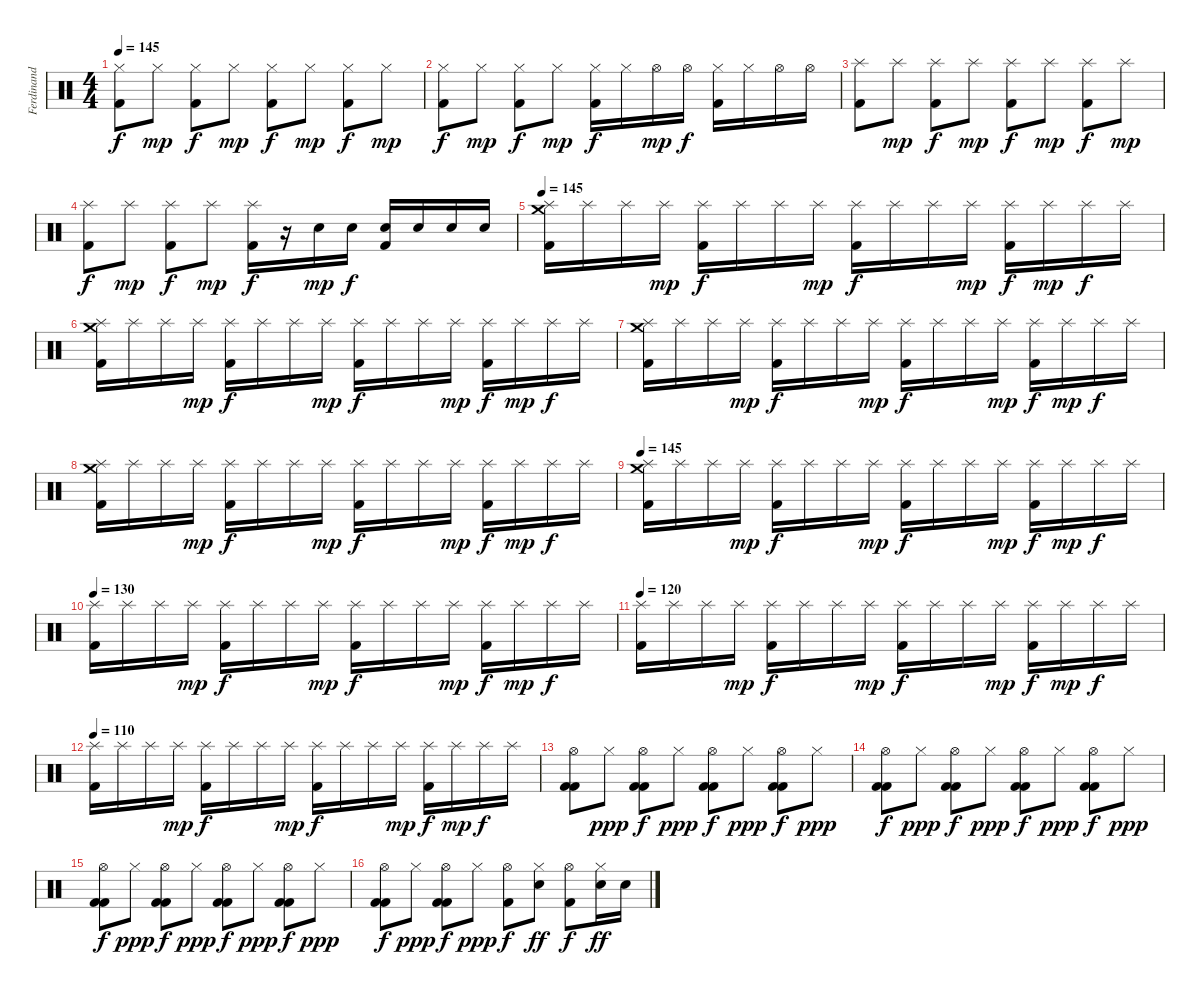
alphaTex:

\track ("Ferdinand" "Ferdinand") {instrument percussion}
\staff {score}
\articulation defaults
\ts (4 4)
\tempo 145
\clef neutral
\ks c
("Kick (hit) 2" "Hi-Hat (closed)").8{dy f} "Hi-Hat (closed)".8{dy mp} ("Kick (hit) 2" "Hi-Hat (closed)").8{dy f} "Hi-Hat (closed)".8{dy mp} ("Kick (hit) 2" "Hi-Hat (closed)").8{dy f} "Hi-Hat (closed)".8{dy mp} ("Kick (hit) 2" "Hi-Hat (closed)").8{dy f} "Hi-Hat (closed)".8{dy mp} |
("Kick (hit) 2" "Hi-Hat (closed)").8{dy f} "Hi-Hat (closed)".8{dy mp} ("Kick (hit) 2" "Hi-Hat (closed)").8{dy f} "Hi-Hat (closed)".8{dy mp} ("Kick (hit) 2" "Hi-Hat (closed)").16{dy f} "Hi-Hat (closed)".16 "Hi-Hat (open)".16{dy mp} "Hi-Hat (open)".16{dy f} ("Kick (hit) 2" "Hi-Hat (closed)").16 "Hi-Hat (closed)".16 "Hi-Hat (open)".16 "Hi-Hat (open)".16 |
("Kick (hit) 2" "Splash (hit)").8 "Splash (hit)".8{dy mp} ("Kick (hit) 2" "Splash (hit)").8{dy f} "Splash (hit)".8{dy mp} ("Kick (hit) 2" "Splash (hit)").8{dy f} "Splash (hit)".8{dy mp} ("Kick (hit) 2" "Splash (hit)").8{dy f} "Splash (hit)".8{dy mp} |
("Kick (hit) 2" "Splash (hit)").8{dy f} "Splash (hit)".8{dy mp} ("Kick (hit) 2" "Splash (hit)").8{dy f} "Splash (hit)".8{dy mp} ("Kick (hit) 2" "Splash (hit)").16{dy f} r.16 "Electric Snare (hit)".16{dy mp} "Electric Snare (hit)".16{dy f} ("Kick (hit) 2" "Electric Snare (hit)").16 "Electric Snare (hit)".16 "Electric Snare (hit)".16 "Electric Snare (hit)".16 |
\tempo 145
("Crash medium (hit)" "Kick (hit) 2" "Splash (hit)").16 "Splash (hit)".16 "Splash (hit)".16 "Splash (hit)".16{dy mp} ("Kick (hit) 2" "Splash (hit)").16{dy f} "Splash (hit)".16 "Splash (hit)".16 "Splash (hit)".16{dy mp} ("Kick (hit) 2" "Splash (hit)").16{dy f} "Splash (hit)".16 "Splash (hit)".16 "Splash (hit)".16{dy mp} ("Kick (hit) 2" "Splash (hit)").16{dy f} "Splash (hit)".16{dy mp} "Splash (hit)".16{dy f} "Splash (hit)".16 |
("Crash medium (hit)" "Kick (hit) 2" "Splash (hit)").16 "Splash (hit)".16 "Splash (hit)".16 "Splash (hit)".16{dy mp} ("Kick (hit) 2" "Splash (hit)").16{dy f} "Splash (hit)".16 "Splash (hit)".16 "Splash (hit)".16{dy mp} ("Kick (hit) 2" "Splash (hit)").16{dy f} "Splash (hit)".16 "Splash (hit)".16 "Splash (hit)".16{dy mp} ("Kick (hit) 2" "Splash (hit)").16{dy f} "Splash (hit)".16{dy mp} "Splash (hit)".16{dy f} "Splash (hit)".16 |
("Crash medium (hit)" "Kick (hit) 2" "Splash (hit)").16 "Splash (hit)".16 "Splash (hit)".16 "Splash (hit)".16{dy mp} ("Kick (hit) 2" "Splash (hit)").16{dy f} "Splash (hit)".16 "Splash (hit)".16 "Splash (hit)".16{dy mp} ("Kick (hit) 2" "Splash (hit)").16{dy f} "Splash (hit)".16 "Splash (hit)".16 "Splash (hit)".16{dy mp} ("Kick (hit) 2" "Splash (hit)").16{dy f} "Splash (hit)".16{dy mp} "Splash (hit)".16{dy f} "Splash (hit)".16 |
("Crash medium (hit)" "Kick (hit) 2" "Splash (hit)").16 "Splash (hit)".16 "Splash (hit)".16 "Splash (hit)".16{dy mp} ("Kick (hit) 2" "Splash (hit)").16{dy f} "Splash (hit)".16 "Splash (hit)".16 "Splash (hit)".16{dy mp} ("Kick (hit) 2" "Splash (hit)").16{dy f} "Splash (hit)".16 "Splash (hit)".16 "Splash (hit)".16{dy mp} ("Kick (hit) 2" "Splash (hit)").16{dy f} "Splash (hit)".16{dy mp} "Splash (hit)".16{dy f} "Splash (hit)".16 |
\tempo 145
("Crash medium (hit)" "Kick (hit) 2" "Splash (hit)").16 "Splash (hit)".16 "Splash (hit)".16 "Splash (hit)".16{dy mp} ("Kick (hit) 2" "Splash (hit)").16{dy f} "Splash (hit)".16 "Splash (hit)".16 "Splash (hit)".16{dy mp} ("Kick (hit) 2" "Splash (hit)").16{dy f} "Splash (hit)".16 "Splash (hit)".16 "Splash (hit)".16{dy mp} ("Kick (hit) 2" "Splash (hit)").16{dy f} "Splash (hit)".16{dy mp} "Splash (hit)".16{dy f} "Splash (hit)".16 |
\tempo 130
("Kick (hit) 2" "Splash (hit)").16 "Splash (hit)".16 "Splash (hit)".16 "Splash (hit)".16{dy mp} ("Kick (hit) 2" "Splash (hit)").16{dy f} "Splash (hit)".16 "Splash (hit)".16 "Splash (hit)".16{dy mp} ("Kick (hit) 2" "Splash (hit)").16{dy f} "Splash (hit)".16 "Splash (hit)".16 "Splash (hit)".16{dy mp} ("Kick (hit) 2" "Splash (hit)").16{dy f} "Splash (hit)".16{dy mp} "Splash (hit)".16{dy f} "Splash (hit)".16 |
\tempo 120
("Kick (hit) 2" "Splash (hit)").16 "Splash (hit)".16 "Splash (hit)".16 "Splash (hit)".16{dy mp} ("Kick (hit) 2" "Splash (hit)").16{dy f} "Splash (hit)".16 "Splash (hit)".16 "Splash (hit)".16{dy mp} ("Kick (hit) 2" "Splash (hit)").16{dy f} "Splash (hit)".16 "Splash (hit)".16 "Splash (hit)".16{dy mp} ("Kick (hit) 2" "Splash (hit)").16{dy f} "Splash (hit)".16{dy mp} "Splash (hit)".16{dy f} "Splash (hit)".16 |
\tempo 110
("Kick (hit) 2" "Splash (hit)").16 "Splash (hit)".16 "Splash (hit)".16 "Splash (hit)".16{dy mp} ("Kick (hit) 2" "Splash (hit)").16{dy f} "Splash (hit)".16 "Splash (hit)".16 "Splash (hit)".16{dy mp} ("Kick (hit) 2" "Splash (hit)").16{dy f} "Splash (hit)".16 "Splash (hit)".16 "Splash (hit)".16{dy mp} ("Kick (hit) 2" "Splash (hit)").16{dy f} "Splash (hit)".16{dy mp} "Splash (hit)".16{dy f} "Splash (hit)".16 |
("Hi-Hat (open)" "Kick (hit) 2" "Kick (hit) 2").8 "Hi-Hat (closed)".8{dy ppp} ("Hi-Hat (open)" "Kick (hit) 2" "Kick (hit) 2").8{dy f} "Hi-Hat (closed)".8{dy ppp} ("Hi-Hat (open)" "Kick (hit) 2" "Kick (hit) 2").8{dy f} "Hi-Hat (closed)".8{dy ppp} ("Hi-Hat (open)" "Kick (hit) 2" "Kick (hit) 2").8{dy f} "Hi-Hat (closed)".8{dy ppp} |
("Hi-Hat (open)" "Kick (hit) 2" "Kick (hit) 2").8{dy f} "Hi-Hat (closed)".8{dy ppp} ("Hi-Hat (open)" "Kick (hit) 2" "Kick (hit) 2").8{dy f} "Hi-Hat (closed)".8{dy ppp} ("Hi-Hat (open)" "Kick (hit) 2" "Kick (hit) 2").8{dy f} "Hi-Hat (closed)".8{dy ppp} ("Hi-Hat (open)" "Kick (hit) 2" "Kick (hit) 2").8{dy f} "Hi-Hat (closed)".8{dy ppp} |
("Hi-Hat (open)" "Kick (hit) 2" "Kick (hit) 2").8{dy f} "Hi-Hat (closed)".8{dy ppp} ("Hi-Hat (open)" "Kick (hit) 2" "Kick (hit) 2").8{dy f} "Hi-Hat (closed)".8{dy ppp} ("Hi-Hat (open)" "Kick (hit) 2" "Kick (hit) 2").8{dy f} "Hi-Hat (closed)".8{dy ppp} ("Hi-Hat (open)" "Kick (hit) 2" "Kick (hit) 2").8{dy f} "Hi-Hat (closed)".8{dy ppp} |
("Hi-Hat (open)" "Kick (hit) 2" "Kick (hit) 2").8{dy f} "Hi-Hat (closed)".8{dy ppp} ("Hi-Hat (open)" "Kick (hit) 2" "Kick (hit) 2").8{dy f} "Hi-Hat (closed)".8{dy ppp} ("Hi-Hat (open)" "Kick (hit) 2").8{dy f} ("Hi-Hat (closed)" "Electric Snare (hit)").8{dy ff} ("Hi-Hat (open)" "Kick (hit) 2").8{dy f} ("Hi-Hat (closed)" "Electric Snare (hit)").16{dy ff} "Electric Snare (hit)".16
